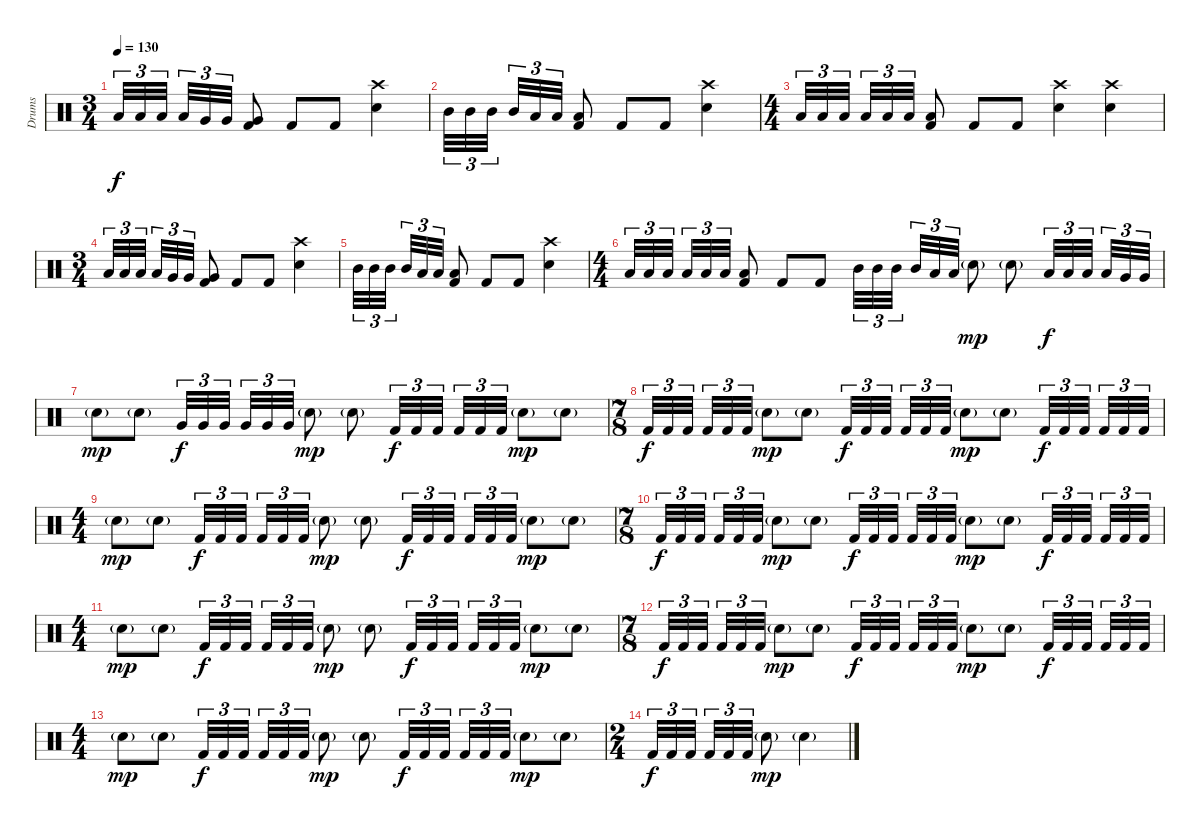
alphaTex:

\track ("Drums" "Drums") {instrument percussion}
\staff {score}
\articulation defaults
\ts (3 4)
\tempo 130
\clef neutral
\ks c "Low Floor Tom (hit)".32{tu (3 2) dy f} "Low Floor Tom (hit)".32{tu (3 2)} "Low Floor Tom (hit)".32{tu (3 2)} "Low Floor Tom (hit)".32{tu (3 2)} "Very Low Tom (hit)".32{tu (3 2)} "Very Low Tom (hit)".32{tu (3 2)}
("Very Low Tom (hit)" "Kick (hit) 2").8 "Kick (hit) 2".8 "Kick (hit) 2".8 ("Crash high (hit)" "Snare (hit) 2").4 |
"Mid Tom (hit)".32{tu (3 2)} "Mid Tom (hit)".32{tu (3 2)} "Mid Tom (hit)".32{tu (3 2)} "Mid Tom (hit)".32{tu (3 2)} "Low Tom (hit)".32{tu (3 2)} "Low Tom (hit)".32{tu (3 2)} ("Low Tom (hit)" "Kick (hit) 2").8 "Kick (hit) 2".8 "Kick (hit) 2".8 ("Crash high (hit)" "Snare (hit) 2").4 |
\ts (4 4)
"Low Tom (hit)".32{tu (3 2)} "Low Tom (hit)".32{tu (3 2)} "Low Tom (hit)".32{tu (3 2)} "Low Tom (hit)".32{tu (3 2)} "Low Floor Tom (hit)".32{tu (3 2)} "Low Floor Tom (hit)".32{tu (3 2)} ("Low Floor Tom (hit)" "Kick (hit) 2").8 "Kick (hit) 2".8 "Kick (hit) 2".8 ("Crash high (hit)" "Snare (hit) 2").4 ("Crash high (hit)" "Snare (hit) 2").4 |
\ts (3 4)
"Low Floor Tom (hit)".32{tu (3 2)} "Low Floor Tom (hit)".32{tu (3 2)} "Low Floor Tom (hit)".32{tu (3 2)} "Low Floor Tom (hit)".32{tu (3 2)} "Very Low Tom (hit)".32{tu (3 2)} "Very Low Tom (hit)".32{tu (3 2)} ("Very Low Tom (hit)" "Kick (hit) 2").8 "Kick (hit) 2".8 "Kick (hit) 2".8 ("Crash high (hit)" "Snare (hit) 2").4 |
"Mid Tom (hit)".32{tu (3 2)} "Mid Tom (hit)".32{tu (3 2)} "Mid Tom (hit)".32{tu (3 2)} "Mid Tom (hit)".32{tu (3 2)} "Low Tom (hit)".32{tu (3 2)} "Low Tom (hit)".32{tu (3 2)} ("Low Tom (hit)" "Kick (hit) 2").8 "Kick (hit) 2".8 "Kick (hit) 2".8 ("Crash high (hit)" "Snare (hit) 2").4 |
\ts (4 4)
"Low Tom (hit)".32{tu (3 2)} "Low Tom (hit)".32{tu (3 2)} "Low Tom (hit)".32{tu (3 2)} "Low Tom (hit)".32{tu (3 2)} "Low Floor Tom (hit)".32{tu (3 2)} "Low Floor Tom (hit)".32{tu (3 2)} ("Low Floor Tom (hit)" "Kick (hit) 2").8 "Kick (hit) 2".8 "Kick (hit) 2".8 "Mid Tom (hit)".32{tu (3 2)} "Mid Tom (hit)".32{tu (3 2)} "Mid Tom (hit)".32{tu (3 2)} "Mid Tom (hit)".32{tu (3 2)} "Low Tom (hit)".32{tu (3 2)} "Low Tom (hit)".32{tu (3 2)} "Snare (hit) 2"{g}.8{dy mp} "Snare (hit) 2"{g}.8 "Low Floor Tom (hit)".32{tu (3 2) dy f} "Low Floor Tom (hit)".32{tu (3 2)} "Low Floor Tom (hit)".32{tu (3 2)} "Low Floor Tom (hit)".32{tu (3 2)} "Very Low Tom (hit)".32{tu (3 2)} "Very Low Tom (hit)".32{tu (3 2)} |
"Snare (hit) 2"{g}.8{dy mp} "Snare (hit) 2"{g}.8 "Very Low Tom (hit)".32{tu (3 2) dy f} "Very Low Tom (hit)".32{tu (3 2)} "Very Low Tom (hit)".32{tu (3 2)} "Very Low Tom (hit)".32{tu (3 2)} "Very Low Tom (hit)".32{tu (3 2)} "Very Low Tom (hit)".32{tu (3 2)} "Snare (hit) 2"{g}.8{dy mp volume 4} "Snare (hit) 2"{g}.8 "Kick (hit) 2".32{tu (3 2) dy f} "Kick (hit) 2".32{tu (3 2)} "Kick (hit) 2".32{tu (3 2)} "Kick (hit) 2".32{tu (3 2)} "Kick (hit) 2".32{tu (3 2)} "Kick (hit) 2".32{tu (3 2)} "Snare (hit) 2"{g}.8{dy mp} "Snare (hit) 2"{g}.8 |
\ts (7 8)
"Kick (hit) 2".32{tu (3 2) dy f} "Kick (hit) 2".32{tu (3 2)} "Kick (hit) 2".32{tu (3 2)} "Kick (hit) 2".32{tu (3 2)} "Kick (hit) 2".32{tu (3 2)} "Kick (hit) 2".32{tu (3 2)} "Snare (hit) 2"{g}.8{dy mp} "Snare (hit) 2"{g}.8 "Kick (hit) 2".32{tu (3 2) dy f} "Kick (hit) 2".32{tu (3 2)} "Kick (hit) 2".32{tu (3 2)} "Kick (hit) 2".32{tu (3 2)} "Kick (hit) 2".32{tu (3 2)} "Kick (hit) 2".32{tu (3 2)} "Snare (hit) 2"{g}.8{dy mp} "Snare (hit) 2"{g}.8 "Kick (hit) 2".32{tu (3 2) dy f} "Kick (hit) 2".32{tu (3 2)} "Kick (hit) 2".32{tu (3 2)} "Kick (hit) 2".32{tu (3 2)} "Kick (hit) 2".32{tu (3 2)} "Kick (hit) 2".32{tu (3 2)} |
\ts (4 4)
"Snare (hit) 2"{g}.8{dy mp volume 13} "Snare (hit) 2"{g}.8 "Kick (hit) 2".32{tu (3 2) dy f} "Kick (hit) 2".32{tu (3 2)} "Kick (hit) 2".32{tu (3 2)} "Kick (hit) 2".32{tu (3 2)} "Kick (hit) 2".32{tu (3 2)} "Kick (hit) 2".32{tu (3 2)} "Snare (hit) 2"{g}.8{dy mp} "Snare (hit) 2"{g}.8 "Kick (hit) 2".32{tu (3 2) dy f} "Kick (hit) 2".32{tu (3 2)} "Kick (hit) 2".32{tu (3 2)} "Kick (hit) 2".32{tu (3 2)} "Kick (hit) 2".32{tu (3 2)} "Kick (hit) 2".32{tu (3 2)} "Snare (hit) 2"{g}.8{dy mp} "Snare (hit) 2"{g}.8 |
\ts (7 8)
"Kick (hit) 2".32{tu (3 2) dy f} "Kick (hit) 2".32{tu (3 2)} "Kick (hit) 2".32{tu (3 2)} "Kick (hit) 2".32{tu (3 2)} "Kick (hit) 2".32{tu (3 2)} "Kick (hit) 2".32{tu (3 2)} "Snare (hit) 2"{g}.8{dy mp} "Snare (hit) 2"{g}.8 "Kick (hit) 2".32{tu (3 2) dy f} "Kick (hit) 2".32{tu (3 2)} "Kick (hit) 2".32{tu (3 2)} "Kick (hit) 2".32{tu (3 2)} "Kick (hit) 2".32{tu (3 2)} "Kick (hit) 2".32{tu (3 2)} "Snare (hit) 2"{g}.8{dy mp} "Snare (hit) 2"{g}.8 "Kick (hit) 2".32{tu (3 2) dy f} "Kick (hit) 2".32{tu (3 2)} "Kick (hit) 2".32{tu (3 2)} "Kick (hit) 2".32{tu (3 2)} "Kick (hit) 2".32{tu (3 2)} "Kick (hit) 2".32{tu (3 2)} |
\ts (4 4)
"Snare (hit) 2"{g}.8{dy mp} "Snare (hit) 2"{g}.8 "Kick (hit) 2".32{tu (3 2) dy f} "Kick (hit) 2".32{tu (3 2)} "Kick (hit) 2".32{tu (3 2)} "Kick (hit) 2".32{tu (3 2)} "Kick (hit) 2".32{tu (3 2)} "Kick (hit) 2".32{tu (3 2)} "Snare (hit) 2"{g}.8{dy mp} "Snare (hit) 2"{g}.8 "Kick (hit) 2".32{tu (3 2) dy f} "Kick (hit) 2".32{tu (3 2)} "Kick (hit) 2".32{tu (3 2)} "Kick (hit) 2".32{tu (3 2)} "Kick (hit) 2".32{tu (3 2)} "Kick (hit) 2".32{tu (3 2)} "Snare (hit) 2"{g}.8{dy mp} "Snare (hit) 2"{g}.8 |
\ts (7 8)
"Kick (hit) 2".32{tu (3 2) dy f} "Kick (hit) 2".32{tu (3 2)} "Kick (hit) 2".32{tu (3 2)} "Kick (hit) 2".32{tu (3 2)} "Kick (hit) 2".32{tu (3 2)} "Kick (hit) 2".32{tu (3 2)} "Snare (hit) 2"{g}.8{dy mp} "Snare (hit) 2"{g}.8 "Kick (hit) 2".32{tu (3 2) dy f} "Kick (hit) 2".32{tu (3 2)} "Kick (hit) 2".32{tu (3 2)} "Kick (hit) 2".32{tu (3 2)} "Kick (hit) 2".32{tu (3 2)} "Kick (hit) 2".32{tu (3 2)} "Snare (hit) 2"{g}.8{dy mp} "Snare (hit) 2"{g}.8 "Kick (hit) 2".32{tu (3 2) dy f volume 4} "Kick (hit) 2".32{tu (3 2)} "Kick (hit) 2".32{tu (3 2)} "Kick (hit) 2".32{tu (3 2)} "Kick (hit) 2".32{tu (3 2)} "Kick (hit) 2".32{tu (3 2)} |
\ts (4 4)
"Snare (hit) 2"{g}.8{dy mp} "Snare (hit) 2"{g}.8 "Kick (hit) 2".32{tu (3 2) dy f} "Kick (hit) 2".32{tu (3 2)} "Kick (hit) 2".32{tu (3 2)} "Kick (hit) 2".32{tu (3 2)} "Kick (hit) 2".32{tu (3 2)} "Kick (hit) 2".32{tu (3 2)} "Snare (hit) 2"{g}.8{dy mp} "Snare (hit) 2"{g}.8 "Kick (hit) 2".32{tu (3 2) dy f volume 0} "Kick (hit) 2".32{tu (3 2)} "Kick (hit) 2".32{tu (3 2)} "Kick (hit) 2".32{tu (3 2)} "Kick (hit) 2".32{tu (3 2)} "Kick (hit) 2".32{tu (3 2)} "Snare (hit) 2"{g}.8{dy mp} "Snare (hit) 2"{g}.8 |
\ts (2 4)
"Kick (hit) 2".32{tu (3 2) dy f} "Kick (hit) 2".32{tu (3 2)} "Kick (hit) 2".32{tu (3 2)} "Kick (hit) 2".32{tu (3 2)} "Kick (hit) 2".32{tu (3 2)} "Kick (hit) 2".32{tu (3 2)} "Snare (hit) 2"{g}.8{dy mp} "Snare (hit) 2"{g}.4
